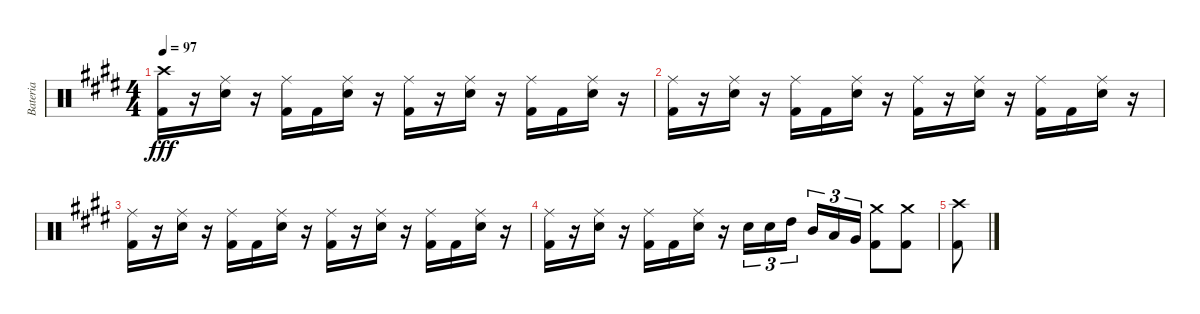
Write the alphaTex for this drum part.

\track ("Bateria" "Bateria") {instrument percussion}
\staff {score}
\articulation defaults
\ts (4 4)
\tempo 97
\clef neutral
\ks e
("Crash high (hit)" "Kick (hit) 2").16{dy fff} r.16 ("Ride (middle)" "Electric Snare (hit)").16 r.16 ("Ride (middle)" "Kick (hit) 2").16 "Kick (hit) 2".16 ("Ride (middle)" "Electric Snare (hit)").16 r.16 ("Ride (middle)" "Kick (hit) 2").16 r.16 ("Ride (middle)" "Electric Snare (hit)").16 r.16 ("Ride (middle)" "Kick (hit) 2").16 "Kick (hit) 2".16 ("Ride (middle)" "Electric Snare (hit)").16 r.16 |
("Ride (middle)" "Kick (hit) 2").16 r.16 ("Ride (middle)" "Electric Snare (hit)").16 r.16 ("Ride (middle)" "Kick (hit) 2").16 "Kick (hit) 2".16 ("Ride (middle)" "Electric Snare (hit)").16 r.16 ("Ride (middle)" "Kick (hit) 2").16 r.16 ("Ride (middle)" "Electric Snare (hit)").16 r.16 ("Ride (middle)" "Kick (hit) 2").16 "Kick (hit) 2".16 ("Ride (middle)" "Electric Snare (hit)").16 r.16 |
("Ride (middle)" "Kick (hit) 2").16 r.16 ("Ride (middle)" "Electric Snare (hit)").16 r.16 ("Ride (middle)" "Kick (hit) 2").16 "Kick (hit) 2".16 ("Ride (middle)" "Electric Snare (hit)").16 r.16 ("Ride (middle)" "Kick (hit) 2").16 r.16 ("Ride (middle)" "Electric Snare (hit)").16 r.16 ("Ride (middle)" "Kick (hit) 2").16 "Kick (hit) 2".16 ("Ride (middle)" "Electric Snare (hit)").16 r.16 |
("Ride (middle)" "Kick (hit) 2").16 r.16 ("Ride (middle)" "Electric Snare (hit)").16 r.16 ("Ride (middle)" "Kick (hit) 2").16 "Kick (hit) 2".16 ("Ride (middle)" "Electric Snare (hit)").16 r.16 "Electric Snare (hit)".16{tu (3 2)} "Electric Snare (hit)".16{tu (3 2)} "High Tom (hit)".16{tu (3 2) beam splitsecondary} "Mid Tom (hit)".16{tu (3 2)} "Low Tom (hit)".16{tu (3 2)} "Very Low Tom (hit)".16{tu (3 2)} ("Crash medium (hit)" "Kick (hit) 2").8 ("Crash medium (hit)" "Kick (hit) 2").8 |
("Crash high (hit)" "Kick (hit) 2").8
